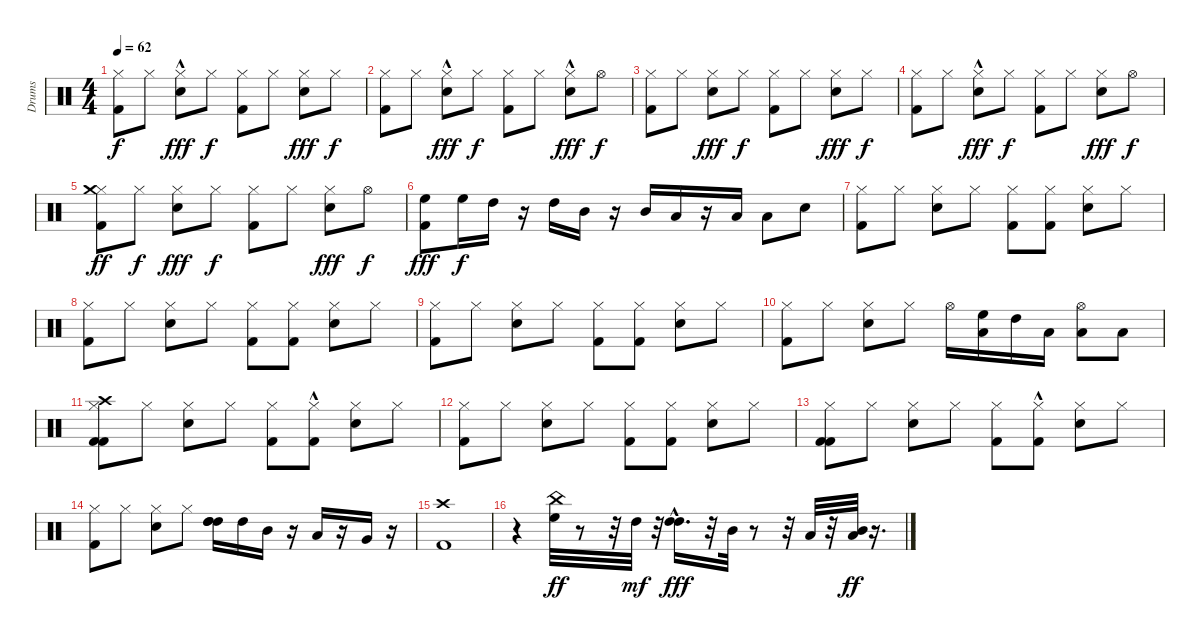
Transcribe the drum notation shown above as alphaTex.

\track ("Drums" "Drums") {instrument percussion}
\staff {score}
\articulation defaults
\ts (4 4)
\tempo 62
\clef neutral
\ks c
("Kick (hit) 2" "Hi-Hat (closed)").8{dy f} "Hi-Hat (closed)".8 ("Electric Snare (hit)"{hac} "Hi-Hat (closed)").8{dy fff} "Hi-Hat (closed)".8{dy f} ("Kick (hit) 2" "Hi-Hat (closed)").8 "Hi-Hat (closed)".8 ("Hi-Hat (closed)" "Electric Snare (hit)").8{dy fff} "Hi-Hat (closed)".8{dy f} |
("Kick (hit) 2" "Hi-Hat (closed)").8 "Hi-Hat (closed)".8 ("Hi-Hat (closed)" "Electric Snare (hit)"{hac}).8{dy fff} "Hi-Hat (closed)".8{dy f} ("Kick (hit) 2" "Hi-Hat (closed)").8 "Hi-Hat (closed)".8 ("Hi-Hat (closed)" "Electric Snare (hit)"{hac}).8{dy fff} "Hi-Hat (open)".8{dy f} |
("Kick (hit) 2" "Hi-Hat (closed)").8 "Hi-Hat (closed)".8 ("Hi-Hat (closed)" "Electric Snare (hit)").8{dy fff} "Hi-Hat (closed)".8{dy f} ("Kick (hit) 2" "Hi-Hat (closed)").8 "Hi-Hat (closed)".8 ("Hi-Hat (closed)" "Electric Snare (hit)").8{dy fff} "Hi-Hat (closed)".8{dy f} |
("Kick (hit) 2" "Hi-Hat (closed)").8 "Hi-Hat (closed)".8 ("Hi-Hat (closed)" "Electric Snare (hit)"{hac}).8{dy fff} "Hi-Hat (closed)".8{dy f} ("Kick (hit) 2" "Hi-Hat (closed)").8 "Hi-Hat (closed)".8 ("Hi-Hat (closed)" "Electric Snare (hit)").8{dy fff} "Hi-Hat (open)".8{dy f} |
("Kick (hit) 2" "Hi-Hat (closed)" "Crash medium (hit)").8{dy ff} "Hi-Hat (closed)".8{dy f} ("Hi-Hat (closed)" "Electric Snare (hit)").8{dy fff} "Hi-Hat (closed)".8{dy f} ("Kick (hit) 2" "Hi-Hat (closed)").8 "Hi-Hat (closed)".8 ("Hi-Hat (closed)" "Electric Snare (hit)").8{dy fff} "Hi-Hat (open)".8{dy f} |
("High Floor Tom (hit)" "Kick (hit) 2").8{dy fff} "High Floor Tom (hit)".16{dy f} "High Tom (hit)".16 r.16 "High Tom (hit)".16 "Mid Tom (hit)".16 r.16 "Mid Tom (hit)".16 "Low Tom (hit)".16 r.16 "Low Floor Tom (hit)".16 "Low Floor Tom (hit)".8 "Snare (hit) 2".8 |
("Kick (hit) 2" "Hi-Hat (closed)").8 "Hi-Hat (closed)".8 ("Snare (hit) 2" "Hi-Hat (closed)").8 "Hi-Hat (closed)".8 ("Kick (hit) 2" "Hi-Hat (closed)").8 ("Kick (hit) 2" "Hi-Hat (closed)").8 ("Snare (hit) 2" "Hi-Hat (closed)").8 "Hi-Hat (closed)".8 |
("Kick (hit) 2" "Hi-Hat (closed)").8 "Hi-Hat (closed)".8 ("Snare (hit) 2" "Hi-Hat (closed)").8 "Hi-Hat (closed)".8 ("Kick (hit) 2" "Hi-Hat (closed)").8 ("Kick (hit) 2" "Hi-Hat (closed)").8 ("Snare (hit) 2" "Hi-Hat (closed)").8 "Hi-Hat (closed)".8 |
("Kick (hit) 2" "Hi-Hat (closed)").8 "Hi-Hat (closed)".8 ("Snare (hit) 2" "Hi-Hat (closed)").8 "Hi-Hat (closed)".8 ("Kick (hit) 2" "Hi-Hat (closed)").8 ("Kick (hit) 2" "Hi-Hat (closed)").8 ("Snare (hit) 2" "Hi-Hat (closed)").8 "Hi-Hat (closed)".8 |
("Kick (hit) 2" "Hi-Hat (closed)").8 "Hi-Hat (closed)".8 ("Snare (hit) 2" "Hi-Hat (closed)").8 "Hi-Hat (closed)".8 "Hi-Hat (open)".16 ("Low Tom (hit)" "High Floor Tom (hit)").16 "High Tom (hit)".16 "Low Tom (hit)".16 ("Hi-Hat (open)" "Low Floor Tom (hit)").8 "Low Floor Tom (hit)".8 |
("Kick (hit) 2" "Hi-Hat (closed)" "Crash high (hit)" "Kick (hit) 2").8 "Hi-Hat (closed)".8 ("Snare (hit) 2" "Hi-Hat (closed)").8 "Hi-Hat (closed)".8 ("Kick (hit) 2" "Hi-Hat (closed)").8 ("Kick (hit) 2"{hac} "Hi-Hat (closed)").8 ("Snare (hit) 2" "Hi-Hat (closed)").8 "Hi-Hat (closed)".8 |
("Kick (hit) 2" "Hi-Hat (closed)").8 "Hi-Hat (closed)".8 ("Snare (hit) 2" "Hi-Hat (closed)").8 "Hi-Hat (closed)".8 ("Kick (hit) 2" "Hi-Hat (closed)").8 ("Kick (hit) 2" "Hi-Hat (closed)").8 ("Snare (hit) 2" "Hi-Hat (closed)").8 "Hi-Hat (closed)".8 |
("Kick (hit) 2" "Hi-Hat (closed)" "Kick (hit) 2").8 "Hi-Hat (closed)".8 ("Snare (hit) 2" "Hi-Hat (closed)").8 "Hi-Hat (closed)".8 ("Kick (hit) 2" "Hi-Hat (closed)").8 ("Kick (hit) 2"{hac} "Hi-Hat (closed)").8 ("Snare (hit) 2" "Hi-Hat (closed)").8 "Hi-Hat (closed)".8 |
("Kick (hit) 2" "Hi-Hat (closed)").8 "Hi-Hat (closed)".8 ("Snare (hit) 2" "Hi-Hat (closed)").8 "Hi-Hat (closed)".8 ("High Tom (hit)" "High Tom (hit)" "High Tom (hit)").16 "High Tom (hit)".16 "Mid Tom (hit)".16 r.16 "Low Tom (hit)".16 r.16 "Very Low Tom (hit)".16 r.16 |
("Crash high (hit)" "Kick (hit) 2").1 |
r.4 ("High Floor Tom (hit)" "China (hit)").32{dy ff} r.8 r.32 "High Tom (hit)".32{dy mf} r.32 ("High Tom (hit)"{hac} "High Tom (hit)"{hac}).16{d dy fff} r.32 "Mid Tom (hit)".32 r.8 r.32 "Low Tom (hit)".32 r.32 ("Low Tom (hit)" "Mid Tom (hit)").32{dy ff} r.16{d}
